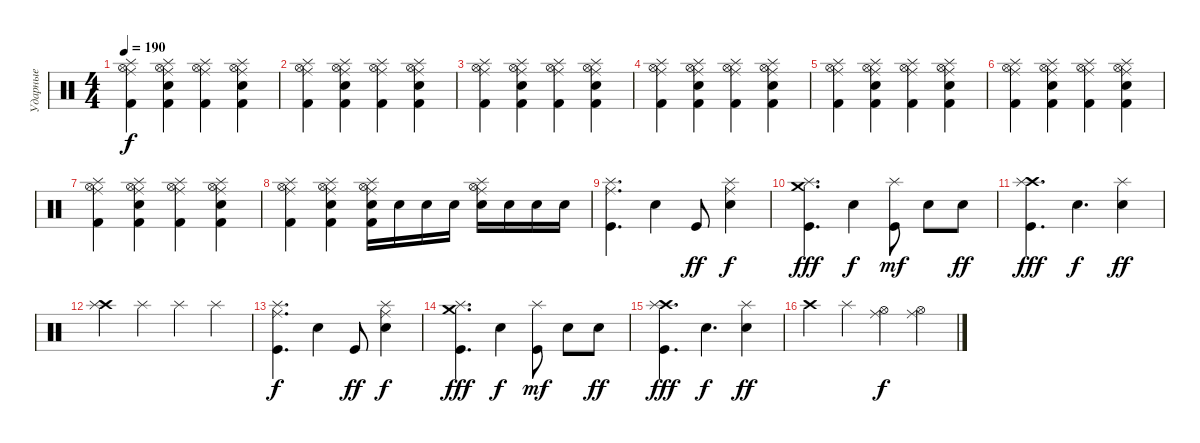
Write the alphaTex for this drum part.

\track ("Ударные" "Ударные") {instrument percussion}
\staff {score}
\articulation defaults
\ts (4 4)
\tempo 190
\clef neutral
\ks c
("Hi-Hat (open)" "Ride (middle)" "Kick (hit) 2" "Splash (hit)").4{dy f} ("Hi-Hat (open)" "Ride (middle)" "Electric Snare (hit)" "Kick (hit) 2" "Splash (hit)").4 ("Hi-Hat (open)" "Ride (middle)" "Kick (hit) 2" "Splash (hit)").4 ("Hi-Hat (open)" "Ride (middle)" "Electric Snare (hit)" "Kick (hit) 2" "Splash (hit)").4 |
("Hi-Hat (open)" "Ride (middle)" "Kick (hit) 2" "Splash (hit)").4 ("Hi-Hat (open)" "Ride (middle)" "Electric Snare (hit)" "Kick (hit) 2" "Splash (hit)").4 ("Hi-Hat (open)" "Ride (middle)" "Kick (hit) 2" "Splash (hit)").4 ("Hi-Hat (open)" "Ride (middle)" "Electric Snare (hit)" "Kick (hit) 2" "Splash (hit)").4 |
("Hi-Hat (open)" "Ride (middle)" "Kick (hit) 2" "Splash (hit)").4 ("Hi-Hat (open)" "Ride (middle)" "Electric Snare (hit)" "Kick (hit) 2" "Splash (hit)").4 ("Hi-Hat (open)" "Ride (middle)" "Kick (hit) 2" "Splash (hit)").4 ("Hi-Hat (open)" "Ride (middle)" "Electric Snare (hit)" "Kick (hit) 2" "Splash (hit)").4 |
("Hi-Hat (open)" "Ride (middle)" "Kick (hit) 2" "Splash (hit)").4 ("Hi-Hat (open)" "Ride (middle)" "Electric Snare (hit)" "Kick (hit) 2" "Splash (hit)").4 ("Hi-Hat (open)" "Ride (middle)" "Kick (hit) 2" "Splash (hit)").4 ("Hi-Hat (open)" "Ride (middle)" "Electric Snare (hit)" "Kick (hit) 2" "Splash (hit)").4 |
("Hi-Hat (open)" "Ride (middle)" "Kick (hit) 2" "Splash (hit)").4 ("Hi-Hat (open)" "Ride (middle)" "Electric Snare (hit)" "Kick (hit) 2" "Splash (hit)").4 ("Hi-Hat (open)" "Ride (middle)" "Kick (hit) 2" "Splash (hit)").4 ("Hi-Hat (open)" "Ride (middle)" "Electric Snare (hit)" "Kick (hit) 2" "Splash (hit)").4 |
("Hi-Hat (open)" "Ride (middle)" "Kick (hit) 2" "Splash (hit)").4 ("Hi-Hat (open)" "Ride (middle)" "Electric Snare (hit)" "Kick (hit) 2" "Splash (hit)").4 ("Hi-Hat (open)" "Ride (middle)" "Kick (hit) 2" "Splash (hit)").4 ("Hi-Hat (open)" "Ride (middle)" "Electric Snare (hit)" "Kick (hit) 2" "Splash (hit)").4 |
("Hi-Hat (open)" "Ride (middle)" "Kick (hit) 2" "Splash (hit)").4 ("Hi-Hat (open)" "Ride (middle)" "Electric Snare (hit)" "Kick (hit) 2" "Splash (hit)").4 ("Hi-Hat (open)" "Ride (middle)" "Kick (hit) 2" "Splash (hit)").4 ("Hi-Hat (open)" "Ride (middle)" "Electric Snare (hit)" "Kick (hit) 2" "Splash (hit)").4 |
("Hi-Hat (open)" "Ride (middle)" "Kick (hit) 2" "Splash (hit)").4 ("Hi-Hat (open)" "Ride (middle)" "Electric Snare (hit)" "Kick (hit) 2" "Splash (hit)").4 ("Hi-Hat (open)" "Ride (middle)" "Electric Snare (hit)" "Kick (hit) 2" "Splash (hit)").16 "Electric Snare (hit)".16 "Electric Snare (hit)".16 "Electric Snare (hit)".16 ("Hi-Hat (open)" "Ride (middle)" "Electric Snare (hit)" "Splash (hit)").16 "Electric Snare (hit)".16 "Electric Snare (hit)".16 "Electric Snare (hit)".16 |
("Splash (hit)" "Ride (middle)" "Kick (hit)").4{d} "Electric Snare (hit)".4 "Kick (hit)".8{dy ff} ("Splash (hit)" "Ride (middle)" "Electric Snare (hit)").4{dy f} |
("Crash medium (hit)" "Splash (hit)" "Kick (hit)").4{d dy fff} "Electric Snare (hit)".4{dy f} ("Splash (hit)" "Kick (hit)").8{dy mf} "Electric Snare (hit)".8 "Electric Snare (hit)".8{dy ff} |
("Crash high (hit)" "Splash (hit)" "Kick (hit)").4{d dy fff} "Electric Snare (hit)".4{d dy f} ("Splash (hit)" "Electric Snare (hit)").4{dy ff} |
("Crash high (hit)" "Splash (hit)").4 "Splash (hit)".4 "Splash (hit)".4 "Splash (hit)".4 |
("Splash (hit)" "Ride (middle)" "Kick (hit)").4{d dy f} "Electric Snare (hit)".4 "Kick (hit)".8{dy ff} ("Splash (hit)" "Ride (middle)" "Electric Snare (hit)").4{dy f} |
("Crash medium (hit)" "Splash (hit)" "Kick (hit)").4{d dy fff} "Electric Snare (hit)".4{dy f} ("Splash (hit)" "Kick (hit)").8{dy mf} "Electric Snare (hit)".8 "Electric Snare (hit)".8{dy ff} |
("Crash high (hit)" "Splash (hit)" "Kick (hit)").4{d dy fff} "Electric Snare (hit)".4{d dy f} ("Splash (hit)" "Electric Snare (hit)").4{dy ff} |
"Crash high (hit)".4 "Splash (hit)".4 ("Ride (middle)" "Hi-Hat (open)").4{dy f} ("Ride (middle)" "Hi-Hat (open)").4
